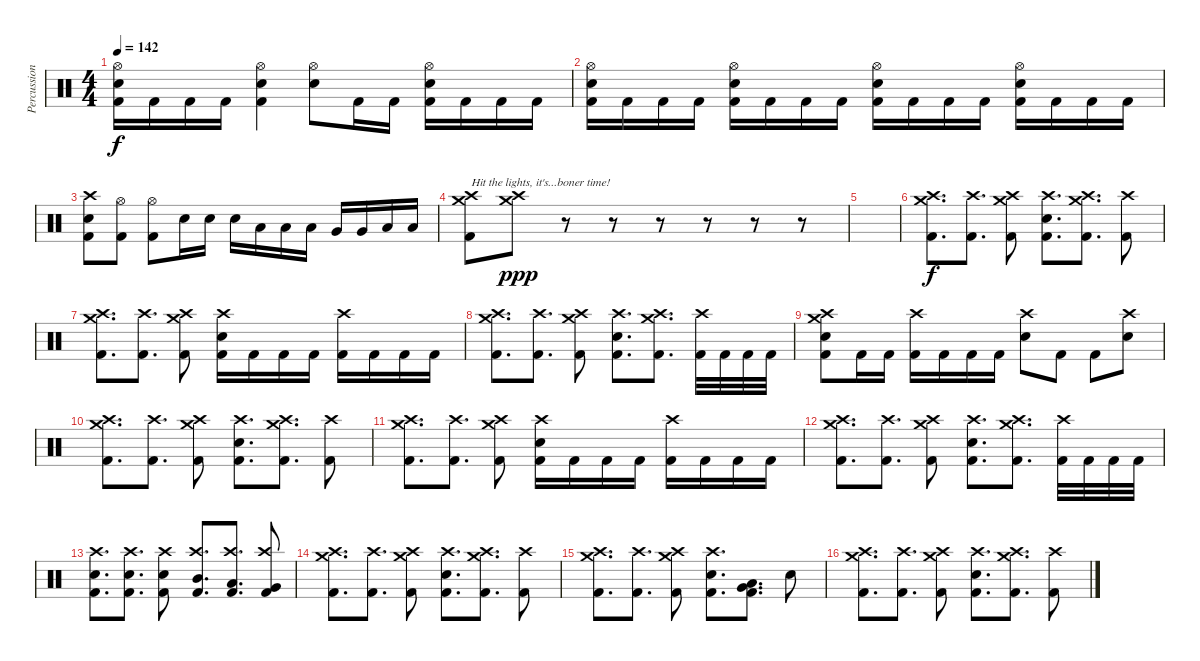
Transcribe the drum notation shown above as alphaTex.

\track ("Percussion" "Percussion") {instrument percussion}
\staff {score}
\articulation defaults
\ts (4 4)
\tempo 142
\clef neutral
\ks c
("Hi-Hat (open)" "Electric Snare (hit)" "Kick (hit) 2").16{dy f} "Kick (hit) 2".16 "Kick (hit) 2".16 "Kick (hit) 2".16 ("Hi-Hat (open)" "Electric Snare (hit)" "Kick (hit) 2").4 ("Hi-Hat (open)" "Electric Snare (hit)").8 "Kick (hit) 2".16 "Kick (hit) 2".16 ("Hi-Hat (open)" "Electric Snare (hit)" "Kick (hit) 2").16 "Kick (hit) 2".16 "Kick (hit) 2".16 "Kick (hit) 2".16 |
("Hi-Hat (open)" "Electric Snare (hit)" "Kick (hit) 2").16 "Kick (hit) 2".16 "Kick (hit) 2".16 "Kick (hit) 2".16 ("Hi-Hat (open)" "Electric Snare (hit)" "Kick (hit) 2").16 "Kick (hit) 2".16 "Kick (hit) 2".16 "Kick (hit) 2".16 ("Hi-Hat (open)" "Electric Snare (hit)" "Kick (hit) 2").16 "Kick (hit) 2".16 "Kick (hit) 2".16 "Kick (hit) 2".16 ("Hi-Hat (open)" "Electric Snare (hit)" "Kick (hit) 2").16 "Kick (hit) 2".16 "Kick (hit) 2".16 "Kick (hit) 2".16 |
("Crash high (hit)" "Electric Snare (hit)" "Kick (hit) 2").8 ("Hi-Hat (open)" "Kick (hit) 2").8 ("Hi-Hat (open)" "Kick (hit) 2").8 "Electric Snare (hit)".16 "Electric Snare (hit)".16 "Electric Snare (hit)".16 "Low Tom (hit)".16 "Low Tom (hit)".16 "Low Tom (hit)".16 "Very Low Tom (hit)".16 "Very Low Tom (hit)".16 "Low Floor Tom (hit)".16 "Low Floor Tom (hit)".16 |
("Crash medium (hit)" "Crash high (hit)" "Kick (hit) 2").8{txt "Hit the lights, it's...boner time!"} ("Crash medium (hit)" "Crash high (hit)").8{dy ppp} r.8 r.8 r.8 r.8 r.8 r.8 |
|
("Crash medium (hit)" "Crash high (hit)" "Kick (hit) 2").8{d dy f} ("Crash high (hit)" "Kick (hit) 2").8{d} ("Crash medium (hit)" "Crash high (hit)" "Kick (hit) 2").8 ("Crash high (hit)" "Electric Snare (hit)" "Kick (hit) 2").8{d} ("Crash medium (hit)" "Crash high (hit)" "Kick (hit) 2").8{d} ("Crash high (hit)" "Kick (hit) 2").8 |
("Crash medium (hit)" "Crash high (hit)" "Kick (hit) 2").8{d} ("Crash high (hit)" "Kick (hit) 2").8{d} ("Crash medium (hit)" "Crash high (hit)" "Kick (hit) 2").8 ("Crash high (hit)" "Electric Snare (hit)" "Kick (hit) 2").16 "Kick (hit) 2".16 "Kick (hit) 2".16 "Kick (hit) 2".16 ("Crash high (hit)" "Kick (hit) 2").16 "Kick (hit) 2".16 "Kick (hit) 2".16 "Kick (hit) 2".16 |
("Crash medium (hit)" "Crash high (hit)" "Kick (hit) 2").8{d} ("Crash high (hit)" "Kick (hit) 2").8{d} ("Crash medium (hit)" "Crash high (hit)" "Kick (hit) 2").8 ("Crash high (hit)" "Electric Snare (hit)" "Kick (hit) 2").8{d} ("Crash medium (hit)" "Crash high (hit)" "Kick (hit) 2").8{d} ("Crash high (hit)" "Kick (hit) 2").32 "Kick (hit) 2".32 "Kick (hit) 2".32 "Kick (hit) 2".32 |
("Crash medium (hit)" "Crash high (hit)" "Electric Snare (hit)" "Kick (hit) 2").8 "Kick (hit) 2".16 "Kick (hit) 2".16 ("Crash high (hit)" "Kick (hit) 2").16 "Kick (hit) 2".16 "Kick (hit) 2".16 "Kick (hit) 2".16 ("Crash high (hit)" "Electric Snare (hit)").8 "Kick (hit) 2".8 "Kick (hit) 2".8 ("Crash high (hit)" "Electric Snare (hit)").8 |
("Crash medium (hit)" "Crash high (hit)" "Kick (hit) 2").8{d} ("Crash high (hit)" "Kick (hit) 2").8{d} ("Crash medium (hit)" "Crash high (hit)" "Kick (hit) 2").8 ("Crash high (hit)" "Electric Snare (hit)" "Kick (hit) 2").8{d} ("Crash medium (hit)" "Crash high (hit)" "Kick (hit) 2").8{d} ("Crash high (hit)" "Kick (hit) 2").8 |
("Crash medium (hit)" "Crash high (hit)" "Kick (hit) 2").8{d} ("Crash high (hit)" "Kick (hit) 2").8{d} ("Crash medium (hit)" "Crash high (hit)" "Kick (hit) 2").8 ("Crash high (hit)" "Electric Snare (hit)" "Kick (hit) 2").16 "Kick (hit) 2".16 "Kick (hit) 2".16 "Kick (hit) 2".16 ("Crash high (hit)" "Kick (hit) 2").16 "Kick (hit) 2".16 "Kick (hit) 2".16 "Kick (hit) 2".16 |
("Crash medium (hit)" "Crash high (hit)" "Kick (hit) 2").8{d} ("Crash high (hit)" "Kick (hit) 2").8{d} ("Crash medium (hit)" "Crash high (hit)" "Kick (hit) 2").8 ("Crash high (hit)" "Electric Snare (hit)" "Kick (hit) 2").8{d} ("Crash medium (hit)" "Crash high (hit)" "Kick (hit) 2").8{d} ("Crash high (hit)" "Kick (hit) 2").32 "Kick (hit) 2".32 "Kick (hit) 2".32 "Kick (hit) 2".32 |
("Crash high (hit)" "Electric Snare (hit)" "Kick (hit) 2").8{d} ("Crash high (hit)" "Electric Snare (hit)" "Kick (hit) 2").8{d} ("Crash high (hit)" "Electric Snare (hit)" "Kick (hit) 2").8 ("Crash high (hit)" "Mid Tom (hit)" "Kick (hit) 2").8{d} ("Crash high (hit)" "Low Tom (hit)" "Kick (hit) 2").8{d} ("Crash high (hit)" "Very Low Tom (hit)" "Kick (hit) 2").8 |
("Crash medium (hit)" "Crash high (hit)" "Kick (hit) 2").8{d} ("Crash high (hit)" "Kick (hit) 2").8{d} ("Crash medium (hit)" "Crash high (hit)" "Kick (hit) 2").8 ("Crash high (hit)" "Electric Snare (hit)" "Kick (hit) 2").8{d} ("Crash medium (hit)" "Crash high (hit)" "Kick (hit) 2").8{d} ("Crash high (hit)" "Kick (hit) 2").8 |
("Crash medium (hit)" "Crash high (hit)" "Kick (hit) 2").8{d} ("Crash high (hit)" "Kick (hit) 2").8{d} ("Crash medium (hit)" "Crash high (hit)" "Kick (hit) 2").8 ("Crash high (hit)" "Electric Snare (hit)" "Kick (hit) 2").8{d} ("Low Tom (hit)" "Very Low Tom (hit)" "Kick (hit) 2").8{d} "Electric Snare (hit)".8 |
("Crash medium (hit)" "Crash high (hit)" "Kick (hit) 2").8{d} ("Crash high (hit)" "Kick (hit) 2").8{d} ("Crash medium (hit)" "Crash high (hit)" "Kick (hit) 2").8 ("Crash high (hit)" "Electric Snare (hit)" "Kick (hit) 2").8{d} ("Crash medium (hit)" "Crash high (hit)" "Kick (hit) 2").8{d} ("Crash high (hit)" "Kick (hit) 2").8
